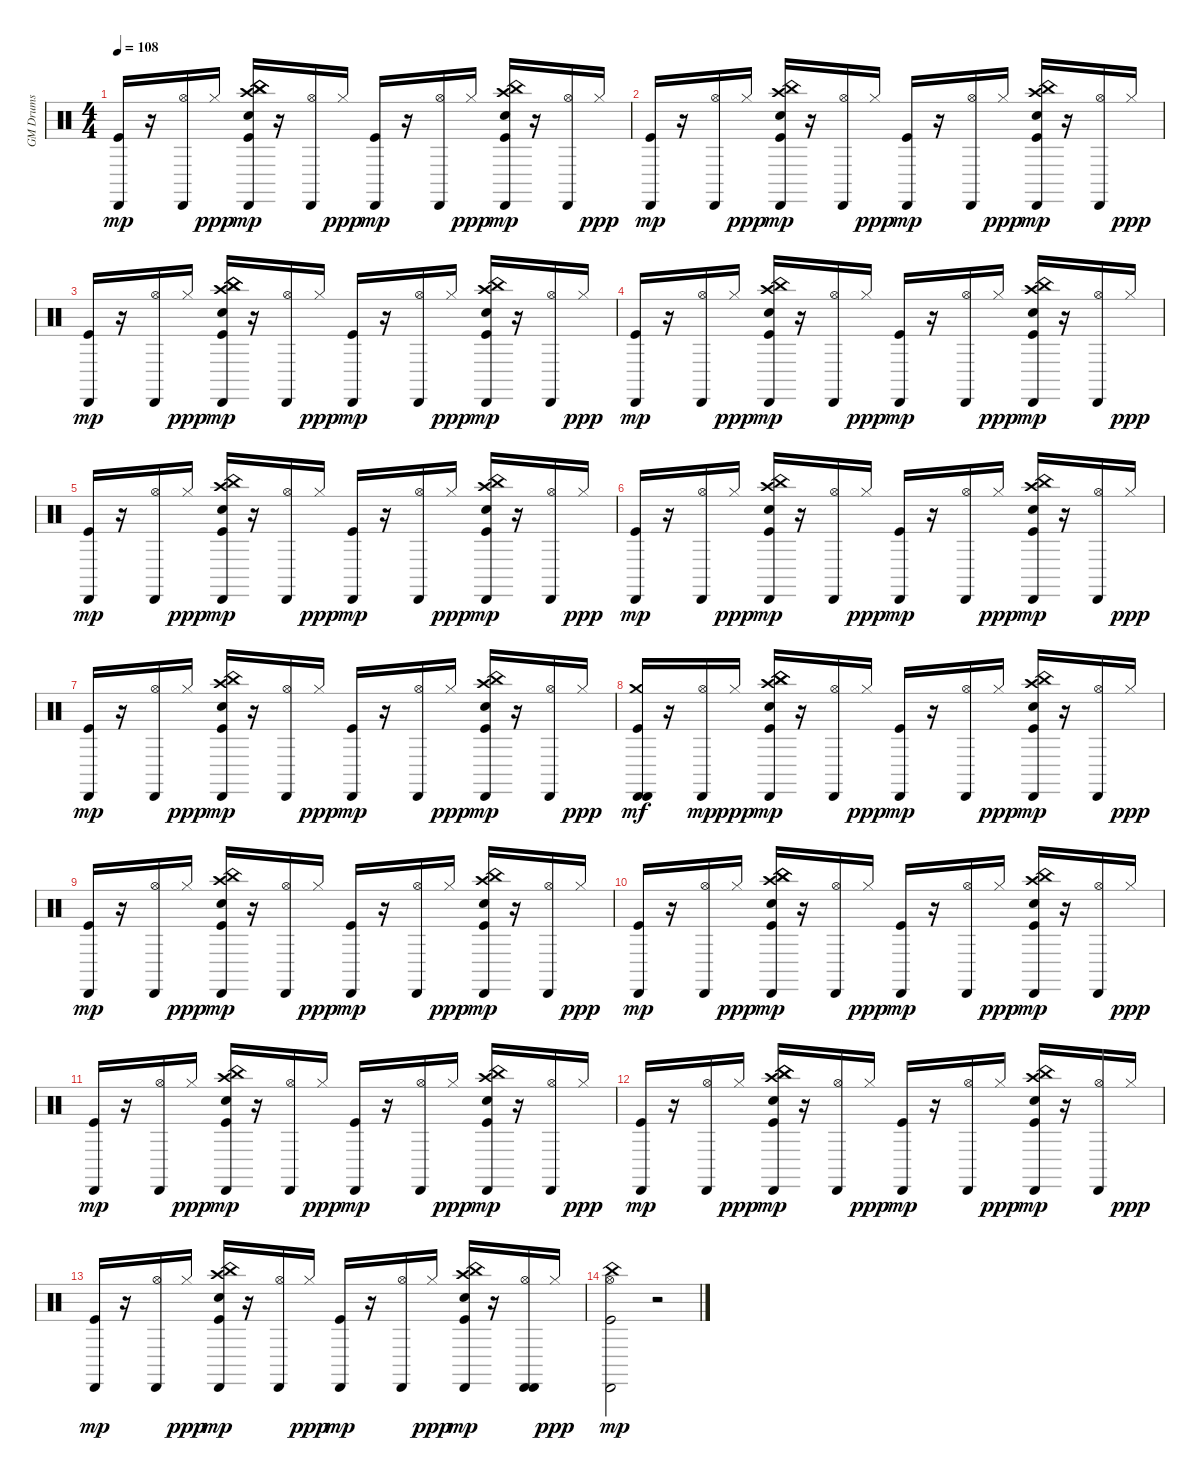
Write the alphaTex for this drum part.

\track ("GM Drums" "GM Drums") {instrument percussion}
\staff {score}
\articulation defaults
\ts (4 4)
\tempo 108
\clef neutral
\ks c
("Kick (hit)" "Cabasa (hit)").16{dy mp} r.16 ("Hi-Hat (open)" "Cabasa (hit)").16 "Hi-Hat (closed)".16{dy ppp} ("Kick (hit)" "Electric Snare (hit)" "Crash high (hit)" "China (hit)" "China (hit)" "Cabasa (hit)").16{dy mp} r.16 ("Hi-Hat (open)" "Cabasa (hit)").16 "Hi-Hat (closed)".16{dy ppp} ("Kick (hit)" "Cabasa (hit)").16{dy mp} r.16 ("Hi-Hat (open)" "Cabasa (hit)").16 "Hi-Hat (closed)".16{dy ppp} ("Kick (hit)" "Electric Snare (hit)" "Crash high (hit)" "China (hit)" "Cabasa (hit)").16{dy mp} r.16 ("Hi-Hat (open)" "Cabasa (hit)").16 "Hi-Hat (closed)".16{dy ppp} |
("Kick (hit)" "Cabasa (hit)").16{dy mp} r.16 ("Hi-Hat (open)" "Cabasa (hit)").16 "Hi-Hat (closed)".16{dy ppp} ("Kick (hit)" "Electric Snare (hit)" "Crash high (hit)" "China (hit)" "Cabasa (hit)").16{dy mp} r.16 ("Hi-Hat (open)" "Cabasa (hit)").16 "Hi-Hat (closed)".16{dy ppp} ("Kick (hit)" "Cabasa (hit)").16{dy mp} r.16 ("Hi-Hat (open)" "Cabasa (hit)").16 "Hi-Hat (closed)".16{dy ppp} ("Kick (hit)" "Electric Snare (hit)" "Crash high (hit)" "China (hit)" "Cabasa (hit)").16{dy mp} r.16 ("Hi-Hat (open)" "Cabasa (hit)").16 "Hi-Hat (closed)".16{dy ppp} |
("Kick (hit)" "Cabasa (hit)").16{dy mp} r.16 ("Hi-Hat (open)" "Cabasa (hit)").16 "Hi-Hat (closed)".16{dy ppp} ("Kick (hit)" "Electric Snare (hit)" "Crash high (hit)" "China (hit)" "China (hit)" "Cabasa (hit)").16{dy mp} r.16 ("Hi-Hat (open)" "Cabasa (hit)").16 "Hi-Hat (closed)".16{dy ppp} ("Kick (hit)" "Cabasa (hit)").16{dy mp} r.16 ("Hi-Hat (open)" "Cabasa (hit)").16 "Hi-Hat (closed)".16{dy ppp} ("Kick (hit)" "Electric Snare (hit)" "Crash high (hit)" "China (hit)" "Cabasa (hit)").16{dy mp} r.16 ("Hi-Hat (open)" "Cabasa (hit)").16 "Hi-Hat (closed)".16{dy ppp} |
("Kick (hit)" "Cabasa (hit)").16{dy mp} r.16 ("Hi-Hat (open)" "Cabasa (hit)").16 "Hi-Hat (closed)".16{dy ppp} ("Kick (hit)" "Electric Snare (hit)" "Crash high (hit)" "China (hit)" "Cabasa (hit)").16{dy mp} r.16 ("Hi-Hat (open)" "Cabasa (hit)").16 "Hi-Hat (closed)".16{dy ppp} ("Kick (hit)" "Cabasa (hit)").16{dy mp} r.16 ("Hi-Hat (open)" "Cabasa (hit)").16 "Hi-Hat (closed)".16{dy ppp} ("Kick (hit)" "Electric Snare (hit)" "Crash high (hit)" "China (hit)" "Cabasa (hit)").16{dy mp} r.16 ("Hi-Hat (open)" "Cabasa (hit)").16 "Hi-Hat (closed)".16{dy ppp} |
("Kick (hit)" "Cabasa (hit)").16{dy mp} r.16 ("Hi-Hat (open)" "Cabasa (hit)").16 "Hi-Hat (closed)".16{dy ppp} ("Kick (hit)" "Electric Snare (hit)" "Crash high (hit)" "China (hit)" "Cabasa (hit)").16{dy mp} r.16 ("Hi-Hat (open)" "Cabasa (hit)").16 "Hi-Hat (closed)".16{dy ppp} ("Kick (hit)" "Cabasa (hit)").16{dy mp} r.16 ("Hi-Hat (open)" "Cabasa (hit)").16 "Hi-Hat (closed)".16{dy ppp} ("Kick (hit)" "Electric Snare (hit)" "Crash high (hit)" "China (hit)" "Cabasa (hit)").16{dy mp} r.16 ("Hi-Hat (open)" "Cabasa (hit)").16 "Hi-Hat (closed)".16{dy ppp} |
("Kick (hit)" "Cabasa (hit)").16{dy mp} r.16 ("Hi-Hat (open)" "Cabasa (hit)").16 "Hi-Hat (closed)".16{dy ppp} ("Kick (hit)" "Electric Snare (hit)" "Crash high (hit)" "China (hit)" "Cabasa (hit)").16{dy mp} r.16 ("Hi-Hat (open)" "Cabasa (hit)").16 "Hi-Hat (closed)".16{dy ppp} ("Kick (hit)" "Cabasa (hit)").16{dy mp} r.16 ("Hi-Hat (open)" "Cabasa (hit)").16 "Hi-Hat (closed)".16{dy ppp} ("Kick (hit)" "Electric Snare (hit)" "Crash high (hit)" "China (hit)" "Cabasa (hit)").16{dy mp} r.16 ("Hi-Hat (open)" "Cabasa (hit)").16 "Hi-Hat (closed)".16{dy ppp} |
("Kick (hit)" "Cabasa (hit)").16{dy mp} r.16 ("Hi-Hat (open)" "Cabasa (hit)").16 "Hi-Hat (closed)".16{dy ppp} ("Kick (hit)" "Electric Snare (hit)" "Crash high (hit)" "China (hit)" "Cabasa (hit)").16{dy mp} r.16 ("Hi-Hat (open)" "Cabasa (hit)").16 "Hi-Hat (closed)".16{dy ppp} ("Kick (hit)" "Cabasa (hit)").16{dy mp} r.16 ("Hi-Hat (open)" "Cabasa (hit)").16 "Hi-Hat (closed)".16{dy ppp} ("Kick (hit)" "Electric Snare (hit)" "Crash high (hit)" "China (hit)" "Cabasa (hit)").16{dy mp} r.16 ("Hi-Hat (open)" "Cabasa (hit)").16 "Hi-Hat (closed)".16{dy ppp} |
("Kick (hit)" "Crash medium (hit)" "Cabasa (hit)" "Cabasa (hit)").16{dy mf} r.16 ("Hi-Hat (open)" "Cabasa (hit)").16{dy mp} "Hi-Hat (closed)".16{dy ppp} ("Kick (hit)" "Electric Snare (hit)" "Crash high (hit)" "China (hit)" "China (hit)" "Cabasa (hit)").16{dy mp} r.16 ("Hi-Hat (open)" "Cabasa (hit)").16 "Hi-Hat (closed)".16{dy ppp} ("Kick (hit)" "Cabasa (hit)").16{dy mp} r.16 ("Hi-Hat (open)" "Cabasa (hit)").16 "Hi-Hat (closed)".16{dy ppp} ("Kick (hit)" "Electric Snare (hit)" "Crash high (hit)" "China (hit)" "Cabasa (hit)").16{dy mp} r.16 ("Hi-Hat (open)" "Cabasa (hit)").16 "Hi-Hat (closed)".16{dy ppp} |
("Kick (hit)" "Cabasa (hit)").16{dy mp} r.16 ("Hi-Hat (open)" "Cabasa (hit)").16 "Hi-Hat (closed)".16{dy ppp} ("Kick (hit)" "Electric Snare (hit)" "Crash high (hit)" "China (hit)" "Cabasa (hit)").16{dy mp} r.16 ("Hi-Hat (open)" "Cabasa (hit)").16 "Hi-Hat (closed)".16{dy ppp} ("Kick (hit)" "Cabasa (hit)").16{dy mp} r.16 ("Hi-Hat (open)" "Cabasa (hit)").16 "Hi-Hat (closed)".16{dy ppp} ("Kick (hit)" "Electric Snare (hit)" "Crash high (hit)" "China (hit)" "Cabasa (hit)").16{dy mp} r.16 ("Hi-Hat (open)" "Cabasa (hit)").16 "Hi-Hat (closed)".16{dy ppp} |
("Kick (hit)" "Cabasa (hit)").16{dy mp} r.16 ("Hi-Hat (open)" "Cabasa (hit)").16 "Hi-Hat (closed)".16{dy ppp} ("Kick (hit)" "Electric Snare (hit)" "Crash high (hit)" "China (hit)" "China (hit)" "Cabasa (hit)").16{dy mp} r.16 ("Hi-Hat (open)" "Cabasa (hit)").16 "Hi-Hat (closed)".16{dy ppp} ("Kick (hit)" "Cabasa (hit)").16{dy mp} r.16 ("Hi-Hat (open)" "Cabasa (hit)").16 "Hi-Hat (closed)".16{dy ppp} ("Kick (hit)" "Electric Snare (hit)" "Crash high (hit)" "China (hit)" "Cabasa (hit)").16{dy mp} r.16 ("Hi-Hat (open)" "Cabasa (hit)").16 "Hi-Hat (closed)".16{dy ppp} |
("Kick (hit)" "Cabasa (hit)").16{dy mp} r.16 ("Hi-Hat (open)" "Cabasa (hit)").16 "Hi-Hat (closed)".16{dy ppp} ("Kick (hit)" "Electric Snare (hit)" "Crash high (hit)" "China (hit)" "Cabasa (hit)").16{dy mp} r.16 ("Hi-Hat (open)" "Cabasa (hit)").16 "Hi-Hat (closed)".16{dy ppp} ("Kick (hit)" "Cabasa (hit)").16{dy mp} r.16 ("Hi-Hat (open)" "Cabasa (hit)").16 "Hi-Hat (closed)".16{dy ppp} ("Kick (hit)" "Electric Snare (hit)" "Crash high (hit)" "China (hit)" "Cabasa (hit)").16{dy mp} r.16 ("Hi-Hat (open)" "Cabasa (hit)").16 "Hi-Hat (closed)".16{dy ppp} |
("Kick (hit)" "Cabasa (hit)").16{dy mp} r.16 ("Hi-Hat (open)" "Cabasa (hit)").16 "Hi-Hat (closed)".16{dy ppp} ("Kick (hit)" "Electric Snare (hit)" "Crash high (hit)" "China (hit)" "China (hit)" "Cabasa (hit)").16{dy mp} r.16 ("Hi-Hat (open)" "Cabasa (hit)").16 "Hi-Hat (closed)".16{dy ppp} ("Kick (hit)" "Cabasa (hit)").16{dy mp} r.16 ("Hi-Hat (open)" "Cabasa (hit)").16 "Hi-Hat (closed)".16{dy ppp} ("Kick (hit)" "Electric Snare (hit)" "Crash high (hit)" "China (hit)" "Cabasa (hit)").16{dy mp} r.16 ("Hi-Hat (open)" "Cabasa (hit)").16 "Hi-Hat (closed)".16{dy ppp} |
("Kick (hit)" "Cabasa (hit)").16{dy mp} r.16 ("Hi-Hat (open)" "Cabasa (hit)").16 "Hi-Hat (closed)".16{dy ppp} ("Kick (hit)" "Electric Snare (hit)" "Crash high (hit)" "China (hit)" "Cabasa (hit)").16{dy mp} r.16 ("Hi-Hat (open)" "Cabasa (hit)").16 "Hi-Hat (closed)".16{dy ppp} ("Kick (hit)" "Cabasa (hit)").16{dy mp} r.16 ("Hi-Hat (open)" "Cabasa (hit)").16 "Hi-Hat (closed)".16{dy ppp} ("Kick (hit)" "Electric Snare (hit)" "Crash high (hit)" "China (hit)" "Cabasa (hit)").16{dy mp} r.16 ("Hi-Hat (open)" "Cabasa (hit)" "Cabasa (hit)").16 "Hi-Hat (closed)".16{dy ppp} |
("Hi-Hat (open)" "Kick (hit)" "China (hit)" "Cabasa (hit)").2{dy mp} r.2
